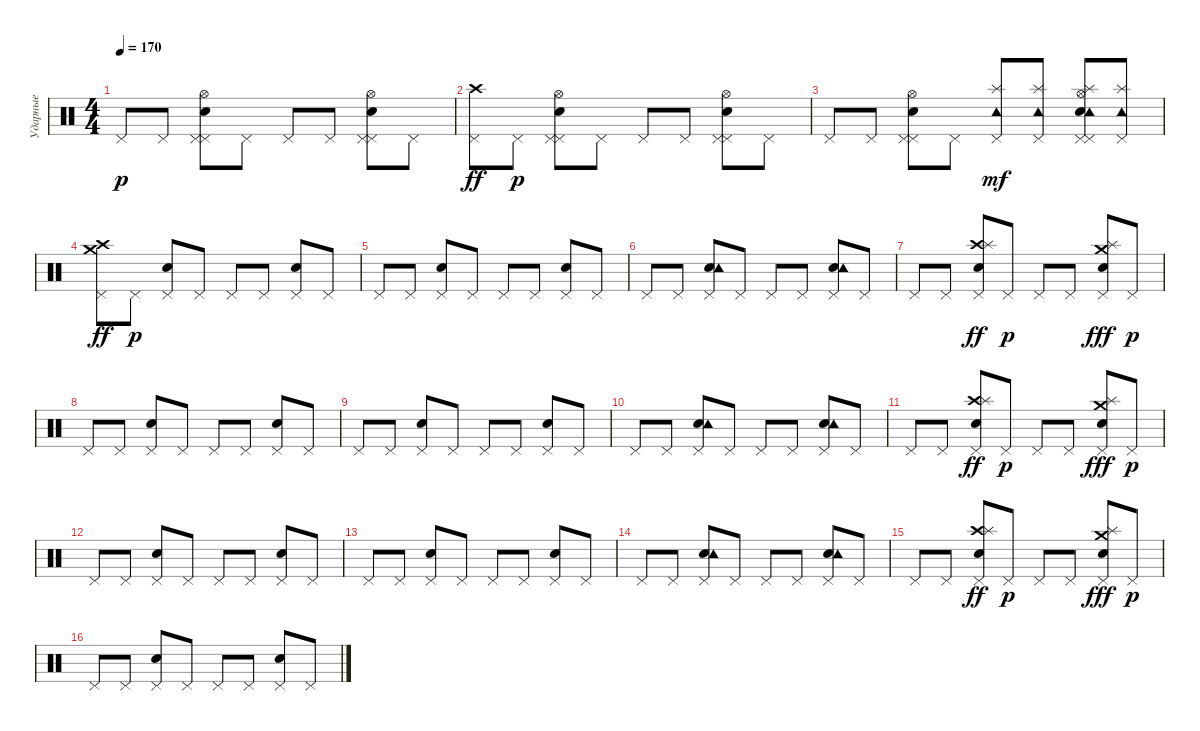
\track ("Ударные" "Ударные") {instrument percussion}
\staff {score}
\articulation defaults
\ts (4 4)
\tempo 170
\clef neutral
\ks c "Pedal Hi-Hat (hit)".8{dy p} "Pedal Hi-Hat (hit)".8
("Pedal Hi-Hat (hit)" "Snare (hit) 2" "Pedal Hi-Hat (hit)" "Hi-Hat (open)").8 "Pedal Hi-Hat (hit)".8 "Pedal Hi-Hat (hit)".8 "Pedal Hi-Hat (hit)".8 ("Pedal Hi-Hat (hit)" "Snare (hit) 2" "Pedal Hi-Hat (hit)" "Hi-Hat (open)").8 "Pedal Hi-Hat (hit)".8 |
("Pedal Hi-Hat (hit)" "Crash high (hit)").8{dy ff} "Pedal Hi-Hat (hit)".8{dy p} ("Pedal Hi-Hat (hit)" "Snare (hit) 2" "Pedal Hi-Hat (hit)" "Hi-Hat (open)").8 "Pedal Hi-Hat (hit)".8 "Pedal Hi-Hat (hit)".8 "Pedal Hi-Hat (hit)".8 ("Pedal Hi-Hat (hit)" "Snare (hit) 2" "Pedal Hi-Hat (hit)" "Hi-Hat (open)").8 "Pedal Hi-Hat (hit)".8 |
"Pedal Hi-Hat (hit)".8 "Pedal Hi-Hat (hit)".8 ("Pedal Hi-Hat (hit)" "Snare (hit) 2" "Pedal Hi-Hat (hit)" "Hi-Hat (open)").8 "Pedal Hi-Hat (hit)".8 ("Pedal Hi-Hat (hit)" "Splash (hit)" "Tambourine (hit)").8{dy mf} ("Pedal Hi-Hat (hit)" "Splash (hit)" "Tambourine (hit)").8 ("Pedal Hi-Hat (hit)" "Snare (hit) 2" "Pedal Hi-Hat (hit)" "Hi-Hat (open)" "Splash (hit)" "Tambourine (hit)").8 ("Pedal Hi-Hat (hit)" "Splash (hit)" "Tambourine (hit)").8 |
("Pedal Hi-Hat (hit)" "Crash medium (hit)" "Crash high (hit)").8{dy ff} "Pedal Hi-Hat (hit)".8{dy p} ("Electric Snare (hit)" "Pedal Hi-Hat (hit)").8 "Pedal Hi-Hat (hit)".8 "Pedal Hi-Hat (hit)".8 "Pedal Hi-Hat (hit)".8 ("Electric Snare (hit)" "Pedal Hi-Hat (hit)").8 "Pedal Hi-Hat (hit)".8 |
"Pedal Hi-Hat (hit)".8 "Pedal Hi-Hat (hit)".8 ("Electric Snare (hit)" "Pedal Hi-Hat (hit)").8 "Pedal Hi-Hat (hit)".8 "Pedal Hi-Hat (hit)".8 "Pedal Hi-Hat (hit)".8 ("Electric Snare (hit)" "Pedal Hi-Hat (hit)").8 "Pedal Hi-Hat (hit)".8 |
"Pedal Hi-Hat (hit)".8 "Pedal Hi-Hat (hit)".8 ("Electric Snare (hit)" "Pedal Hi-Hat (hit)" "Tambourine (hit)").8 "Pedal Hi-Hat (hit)".8 "Pedal Hi-Hat (hit)".8 "Pedal Hi-Hat (hit)".8 ("Electric Snare (hit)" "Pedal Hi-Hat (hit)" "Tambourine (hit)").8 "Pedal Hi-Hat (hit)".8 |
"Pedal Hi-Hat (hit)".8 "Pedal Hi-Hat (hit)".8 ("Electric Snare (hit)" "Pedal Hi-Hat (hit)" "Crash high (hit)" "Splash (hit)").8{dy ff} "Pedal Hi-Hat (hit)".8{dy p} "Pedal Hi-Hat (hit)".8 "Pedal Hi-Hat (hit)".8 ("Electric Snare (hit)" "Pedal Hi-Hat (hit)" "Crash medium (hit)" "Splash (hit)").8{dy fff} "Pedal Hi-Hat (hit)".8{dy p} |
"Pedal Hi-Hat (hit)".8 "Pedal Hi-Hat (hit)".8 ("Electric Snare (hit)" "Pedal Hi-Hat (hit)").8 "Pedal Hi-Hat (hit)".8 "Pedal Hi-Hat (hit)".8 "Pedal Hi-Hat (hit)".8 ("Electric Snare (hit)" "Pedal Hi-Hat (hit)").8 "Pedal Hi-Hat (hit)".8 |
"Pedal Hi-Hat (hit)".8 "Pedal Hi-Hat (hit)".8 ("Electric Snare (hit)" "Pedal Hi-Hat (hit)").8 "Pedal Hi-Hat (hit)".8 "Pedal Hi-Hat (hit)".8 "Pedal Hi-Hat (hit)".8 ("Electric Snare (hit)" "Pedal Hi-Hat (hit)").8 "Pedal Hi-Hat (hit)".8 |
"Pedal Hi-Hat (hit)".8 "Pedal Hi-Hat (hit)".8 ("Electric Snare (hit)" "Pedal Hi-Hat (hit)" "Tambourine (hit)").8 "Pedal Hi-Hat (hit)".8 "Pedal Hi-Hat (hit)".8 "Pedal Hi-Hat (hit)".8 ("Electric Snare (hit)" "Pedal Hi-Hat (hit)" "Tambourine (hit)").8 "Pedal Hi-Hat (hit)".8 |
"Pedal Hi-Hat (hit)".8 "Pedal Hi-Hat (hit)".8 ("Electric Snare (hit)" "Pedal Hi-Hat (hit)" "Crash high (hit)" "Splash (hit)").8{dy ff} "Pedal Hi-Hat (hit)".8{dy p} "Pedal Hi-Hat (hit)".8 "Pedal Hi-Hat (hit)".8 ("Electric Snare (hit)" "Pedal Hi-Hat (hit)" "Crash medium (hit)" "Splash (hit)").8{dy fff} "Pedal Hi-Hat (hit)".8{dy p} |
"Pedal Hi-Hat (hit)".8 "Pedal Hi-Hat (hit)".8 ("Electric Snare (hit)" "Pedal Hi-Hat (hit)").8 "Pedal Hi-Hat (hit)".8 "Pedal Hi-Hat (hit)".8 "Pedal Hi-Hat (hit)".8 ("Electric Snare (hit)" "Pedal Hi-Hat (hit)").8 "Pedal Hi-Hat (hit)".8 |
"Pedal Hi-Hat (hit)".8 "Pedal Hi-Hat (hit)".8 ("Electric Snare (hit)" "Pedal Hi-Hat (hit)").8 "Pedal Hi-Hat (hit)".8 "Pedal Hi-Hat (hit)".8 "Pedal Hi-Hat (hit)".8 ("Electric Snare (hit)" "Pedal Hi-Hat (hit)").8 "Pedal Hi-Hat (hit)".8 |
"Pedal Hi-Hat (hit)".8 "Pedal Hi-Hat (hit)".8 ("Electric Snare (hit)" "Pedal Hi-Hat (hit)" "Tambourine (hit)").8 "Pedal Hi-Hat (hit)".8 "Pedal Hi-Hat (hit)".8 "Pedal Hi-Hat (hit)".8 ("Electric Snare (hit)" "Pedal Hi-Hat (hit)" "Tambourine (hit)").8 "Pedal Hi-Hat (hit)".8 |
"Pedal Hi-Hat (hit)".8 "Pedal Hi-Hat (hit)".8 ("Electric Snare (hit)" "Pedal Hi-Hat (hit)" "Crash high (hit)" "Splash (hit)").8{dy ff} "Pedal Hi-Hat (hit)".8{dy p} "Pedal Hi-Hat (hit)".8 "Pedal Hi-Hat (hit)".8 ("Electric Snare (hit)" "Pedal Hi-Hat (hit)" "Crash medium (hit)" "Splash (hit)").8{dy fff} "Pedal Hi-Hat (hit)".8{dy p} |
"Pedal Hi-Hat (hit)".8 "Pedal Hi-Hat (hit)".8 ("Electric Snare (hit)" "Pedal Hi-Hat (hit)").8 "Pedal Hi-Hat (hit)".8 "Pedal Hi-Hat (hit)".8 "Pedal Hi-Hat (hit)".8 ("Electric Snare (hit)" "Pedal Hi-Hat (hit)").8 "Pedal Hi-Hat (hit)".8
